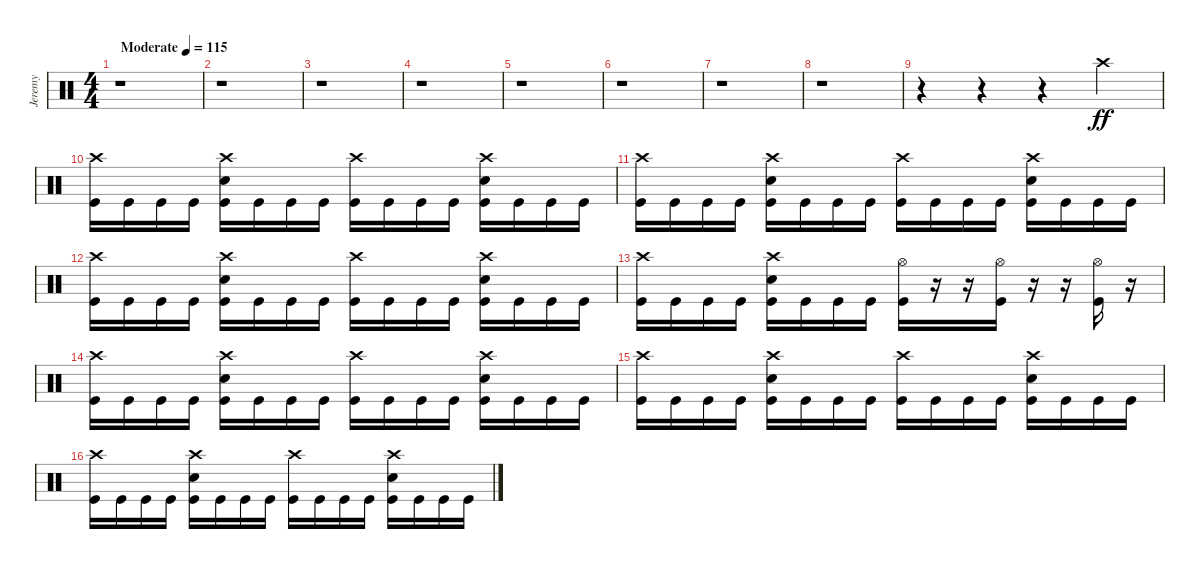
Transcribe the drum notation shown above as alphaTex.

\track ("Jeremy" "Jeremy") {instrument percussion}
\staff {score}
\articulation defaults
\ts (4 4)
\tempo (115 "Moderate")
\clef neutral
\ks c
r.1{dy ff} |
r.1 |
r.1 |
r.1 |
r.1 |
r.1 |
r.1 |
r.1 |
r.4 r.4 r.4 "Crash high (hit)".4 |
("Crash high (hit)" "Kick (hit)").16 "Kick (hit)".16 "Kick (hit)".16 "Kick (hit)".16 ("Crash high (hit)" "Electric Snare (hit)" "Kick (hit)").16 "Kick (hit)".16 "Kick (hit)".16 "Kick (hit)".16 ("Crash high (hit)" "Kick (hit)").16 "Kick (hit)".16 "Kick (hit)".16 "Kick (hit)".16 ("Crash high (hit)" "Electric Snare (hit)" "Kick (hit)").16 "Kick (hit)".16 "Kick (hit)".16 "Kick (hit)".16 |
("Crash high (hit)" "Kick (hit)").16 "Kick (hit)".16 "Kick (hit)".16 "Kick (hit)".16 ("Crash high (hit)" "Electric Snare (hit)" "Kick (hit)").16 "Kick (hit)".16 "Kick (hit)".16 "Kick (hit)".16 ("Crash high (hit)" "Kick (hit)").16 "Kick (hit)".16 "Kick (hit)".16 "Kick (hit)".16 ("Crash high (hit)" "Electric Snare (hit)" "Kick (hit)").16 "Kick (hit)".16 "Kick (hit)".16 "Kick (hit)".16 |
("Crash high (hit)" "Kick (hit)").16 "Kick (hit)".16 "Kick (hit)".16 "Kick (hit)".16 ("Crash high (hit)" "Electric Snare (hit)" "Kick (hit)").16 "Kick (hit)".16 "Kick (hit)".16 "Kick (hit)".16 ("Crash high (hit)" "Kick (hit)").16 "Kick (hit)".16 "Kick (hit)".16 "Kick (hit)".16 ("Crash high (hit)" "Electric Snare (hit)" "Kick (hit)").16 "Kick (hit)".16 "Kick (hit)".16 "Kick (hit)".16 |
("Crash high (hit)" "Kick (hit)").16 "Kick (hit)".16 "Kick (hit)".16 "Kick (hit)".16 ("Crash high (hit)" "Electric Snare (hit)" "Kick (hit)").16 "Kick (hit)".16 "Kick (hit)".16 "Kick (hit)".16 ("Hi-Hat (open)" "Kick (hit)").16 r.16 r.16 ("Hi-Hat (open)" "Kick (hit)").16 r.16 r.16 ("Hi-Hat (open)" "Kick (hit)").16 r.16 |
("Crash high (hit)" "Kick (hit)").16 "Kick (hit)".16 "Kick (hit)".16 "Kick (hit)".16 ("Crash high (hit)" "Electric Snare (hit)" "Kick (hit)").16 "Kick (hit)".16 "Kick (hit)".16 "Kick (hit)".16 ("Crash high (hit)" "Kick (hit)").16 "Kick (hit)".16 "Kick (hit)".16 "Kick (hit)".16 ("Crash high (hit)" "Electric Snare (hit)" "Kick (hit)").16 "Kick (hit)".16 "Kick (hit)".16 "Kick (hit)".16 |
("Crash high (hit)" "Kick (hit)").16 "Kick (hit)".16 "Kick (hit)".16 "Kick (hit)".16 ("Crash high (hit)" "Electric Snare (hit)" "Kick (hit)").16 "Kick (hit)".16 "Kick (hit)".16 "Kick (hit)".16 ("Crash high (hit)" "Kick (hit)").16 "Kick (hit)".16 "Kick (hit)".16 "Kick (hit)".16 ("Crash high (hit)" "Electric Snare (hit)" "Kick (hit)").16 "Kick (hit)".16 "Kick (hit)".16 "Kick (hit)".16 |
("Crash high (hit)" "Kick (hit)").16 "Kick (hit)".16 "Kick (hit)".16 "Kick (hit)".16 ("Crash high (hit)" "Electric Snare (hit)" "Kick (hit)").16 "Kick (hit)".16 "Kick (hit)".16 "Kick (hit)".16 ("Crash high (hit)" "Kick (hit)").16 "Kick (hit)".16 "Kick (hit)".16 "Kick (hit)".16 ("Crash high (hit)" "Electric Snare (hit)" "Kick (hit)").16 "Kick (hit)".16 "Kick (hit)".16 "Kick (hit)".16
